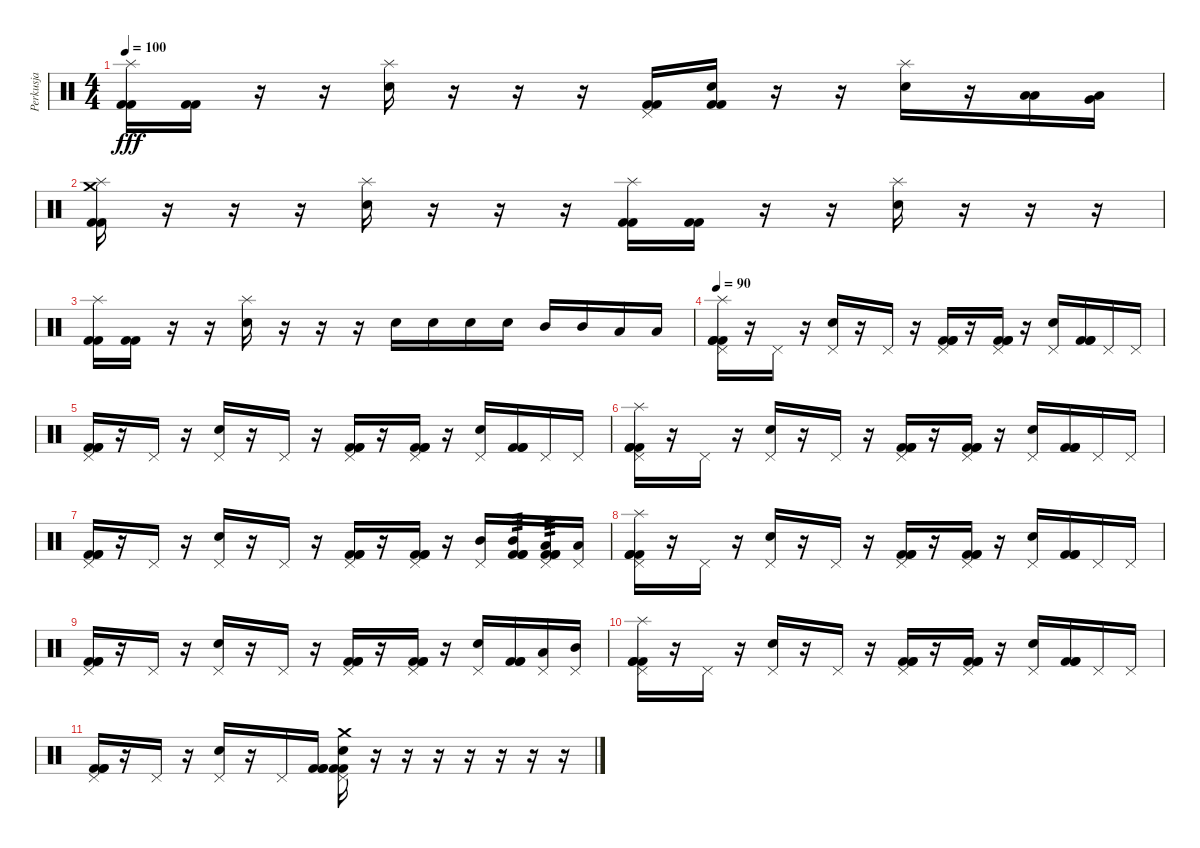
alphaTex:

\track ("Perkusja" "Perkusja") {instrument percussion}
\staff {score}
\articulation defaults
\ts (4 4)
\tempo 100
\clef neutral
\ks c
("Splash (hit)" "Kick (hit) 2" "Kick (hit) 2").16{dy fff} ("Kick (hit) 2" "Kick (hit) 2").16 r.16 r.16 ("Snare (hit) 2" "Splash (hit)").16 r.16 r.16 r.16 ("Pedal Hi-Hat (hit)" "Kick (hit) 2" "Kick (hit) 2").16 ("Snare (hit) 2" "Kick (hit) 2" "Kick (hit) 2").16 r.16 r.16 ("Snare (hit) 2" "Splash (hit)").16 r.16 ("Low Tom (hit)" "Low Tom (hit)").16 ("Very Low Tom (hit)" "Low Tom (hit)").16 |
("Crash medium (hit)" "Splash (hit)" "Kick (hit) 2" "Kick (hit) 2").16 r.16 r.16 r.16 ("Snare (hit) 2" "Splash (hit)").16 r.16 r.16 r.16 ("Splash (hit)" "Kick (hit) 2" "Kick (hit) 2").16 ("Kick (hit) 2" "Kick (hit) 2").16 r.16 r.16 ("Snare (hit) 2" "Splash (hit)").16 r.16 r.16 r.16 |
("Splash (hit)" "Kick (hit) 2" "Kick (hit) 2").16 ("Kick (hit) 2" "Kick (hit) 2").16 r.16 r.16 ("Snare (hit) 2" "Splash (hit)").16 r.16 r.16 r.16 "Snare (hit) 2".16 "Snare (hit) 2".16 "Snare (hit) 2".16 "Snare (hit) 2".16 "Mid Tom (hit)".16 "Mid Tom (hit)".16 "Low Tom (hit)".16 "Low Tom (hit)".16 |
\tempo 90
("Splash (hit)" "Pedal Hi-Hat (hit)" "Kick (hit) 2" "Kick (hit) 2" "Kick (hit) 2").16 r.16 "Pedal Hi-Hat (hit)".16 r.16 ("Snare (hit) 2" "Pedal Hi-Hat (hit)").16 r.16 "Pedal Hi-Hat (hit)".16 r.16 ("Pedal Hi-Hat (hit)" "Kick (hit) 2" "Kick (hit) 2" "Kick (hit) 2").16 r.16 ("Pedal Hi-Hat (hit)" "Kick (hit) 2" "Kick (hit) 2" "Kick (hit) 2").16 r.16 ("Snare (hit) 2" "Pedal Hi-Hat (hit)").16 ("Kick (hit) 2" "Kick (hit) 2" "Kick (hit) 2").16 "Pedal Hi-Hat (hit)".16 "Pedal Hi-Hat (hit)".16 |
("Pedal Hi-Hat (hit)" "Kick (hit) 2" "Kick (hit) 2" "Kick (hit) 2").16 r.16 "Pedal Hi-Hat (hit)".16 r.16 ("Snare (hit) 2" "Pedal Hi-Hat (hit)").16 r.16 "Pedal Hi-Hat (hit)".16 r.16 ("Pedal Hi-Hat (hit)" "Kick (hit) 2" "Kick (hit) 2" "Kick (hit) 2").16 r.16 ("Pedal Hi-Hat (hit)" "Kick (hit) 2" "Kick (hit) 2" "Kick (hit) 2").16 r.16 ("Snare (hit) 2" "Pedal Hi-Hat (hit)").16 ("Kick (hit) 2" "Kick (hit) 2" "Kick (hit) 2").16 "Pedal Hi-Hat (hit)".16 "Pedal Hi-Hat (hit)".16 |
("Splash (hit)" "Pedal Hi-Hat (hit)" "Kick (hit) 2" "Kick (hit) 2" "Kick (hit) 2").16 r.16 "Pedal Hi-Hat (hit)".16 r.16 ("Snare (hit) 2" "Pedal Hi-Hat (hit)").16 r.16 "Pedal Hi-Hat (hit)".16 r.16 ("Pedal Hi-Hat (hit)" "Kick (hit) 2" "Kick (hit) 2" "Kick (hit) 2").16 r.16 ("Pedal Hi-Hat (hit)" "Kick (hit) 2" "Kick (hit) 2" "Kick (hit) 2").16 r.16 ("Snare (hit) 2" "Pedal Hi-Hat (hit)").16 ("Kick (hit) 2" "Kick (hit) 2" "Kick (hit) 2").16 "Pedal Hi-Hat (hit)".16 "Pedal Hi-Hat (hit)".16 |
("Pedal Hi-Hat (hit)" "Kick (hit) 2" "Kick (hit) 2" "Kick (hit) 2").16 r.16 "Pedal Hi-Hat (hit)".16 r.16 ("Snare (hit) 2" "Pedal Hi-Hat (hit)").16 r.16 "Pedal Hi-Hat (hit)".16 r.16 ("Pedal Hi-Hat (hit)" "Kick (hit) 2" "Kick (hit) 2" "Kick (hit) 2").16 r.16 ("Pedal Hi-Hat (hit)" "Kick (hit) 2" "Kick (hit) 2" "Kick (hit) 2").16 r.16 ("Mid Tom (hit)" "Pedal Hi-Hat (hit)").16 ("Mid Tom (hit)" "Kick (hit) 2" "Kick (hit) 2" "Kick (hit) 2").16{tp 3} ("Low Tom (hit)" "Pedal Hi-Hat (hit)" "Kick (hit) 2" "Kick (hit) 2" "Kick (hit) 2").16{tp 3} ("Low Tom (hit)" "Pedal Hi-Hat (hit)").16 |
("Splash (hit)" "Pedal Hi-Hat (hit)" "Kick (hit) 2" "Kick (hit) 2" "Kick (hit) 2").16 r.16 "Pedal Hi-Hat (hit)".16 r.16 ("Snare (hit) 2" "Pedal Hi-Hat (hit)").16 r.16 "Pedal Hi-Hat (hit)".16 r.16 ("Pedal Hi-Hat (hit)" "Kick (hit) 2" "Kick (hit) 2" "Kick (hit) 2").16 r.16 ("Pedal Hi-Hat (hit)" "Kick (hit) 2" "Kick (hit) 2" "Kick (hit) 2").16 r.16 ("Snare (hit) 2" "Pedal Hi-Hat (hit)").16 ("Kick (hit) 2" "Kick (hit) 2" "Kick (hit) 2").16 "Pedal Hi-Hat (hit)".16 "Pedal Hi-Hat (hit)".16 |
("Pedal Hi-Hat (hit)" "Kick (hit) 2" "Kick (hit) 2" "Kick (hit) 2").16 r.16 "Pedal Hi-Hat (hit)".16 r.16 ("Snare (hit) 2" "Pedal Hi-Hat (hit)").16 r.16 "Pedal Hi-Hat (hit)".16 r.16 ("Pedal Hi-Hat (hit)" "Kick (hit) 2" "Kick (hit) 2" "Kick (hit) 2").16 r.16 ("Pedal Hi-Hat (hit)" "Kick (hit) 2" "Kick (hit) 2" "Kick (hit) 2").16 r.16 ("Snare (hit) 2" "Pedal Hi-Hat (hit)").16 ("Kick (hit) 2" "Kick (hit) 2" "Kick (hit) 2").16 ("Low Tom (hit)" "Pedal Hi-Hat (hit)").16 ("Mid Tom (hit)" "Pedal Hi-Hat (hit)").16 |
("Splash (hit)" "Pedal Hi-Hat (hit)" "Kick (hit) 2" "Kick (hit) 2" "Kick (hit) 2").16 r.16 "Pedal Hi-Hat (hit)".16 r.16 ("Snare (hit) 2" "Pedal Hi-Hat (hit)").16 r.16 "Pedal Hi-Hat (hit)".16 r.16 ("Pedal Hi-Hat (hit)" "Kick (hit) 2" "Kick (hit) 2" "Kick (hit) 2").16 r.16 ("Pedal Hi-Hat (hit)" "Kick (hit) 2" "Kick (hit) 2" "Kick (hit) 2").16 r.16 ("Snare (hit) 2" "Pedal Hi-Hat (hit)").16 ("Kick (hit) 2" "Kick (hit) 2" "Kick (hit) 2").16 "Pedal Hi-Hat (hit)".16 "Pedal Hi-Hat (hit)".16 |
("Pedal Hi-Hat (hit)" "Kick (hit) 2" "Kick (hit) 2" "Kick (hit) 2").16 r.16 "Pedal Hi-Hat (hit)".16 r.16 ("Snare (hit) 2" "Pedal Hi-Hat (hit)").16 r.16 "Pedal Hi-Hat (hit)".16 ("Kick (hit) 2" "Kick (hit) 2" "Kick (hit) 2").16 ("Snare (hit) 2" "Crash medium (hit)" "Pedal Hi-Hat (hit)" "Kick (hit) 2" "Kick (hit) 2").16 r.16 r.16 r.16 r.16 r.16 r.16 r.16
